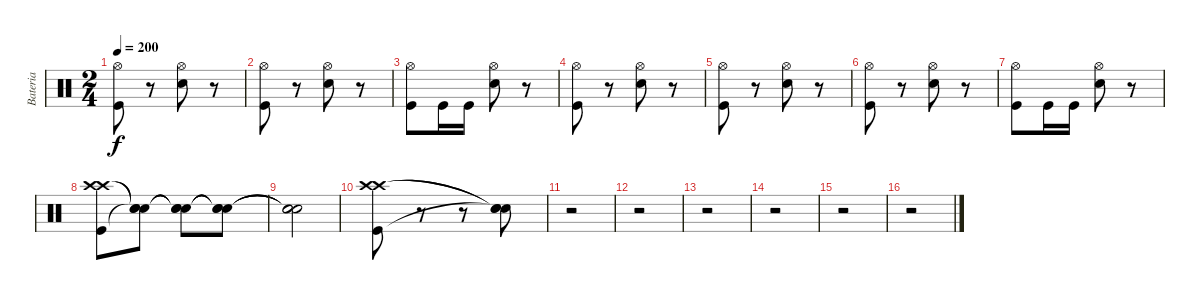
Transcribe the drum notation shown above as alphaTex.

\track ("Bateria" "Bateria") {instrument percussion}
\staff {score}
\articulation defaults
\ts (2 4)
\tempo 200
\clef neutral
\ks c
("Kick (hit)" "Hi-Hat (open)").8{dy f} r.8 ("Electric Snare (hit)" "Hi-Hat (open)").8 r.8 |
("Kick (hit)" "Hi-Hat (open)").8 r.8 ("Electric Snare (hit)" "Hi-Hat (open)").8 r.8 |
("Kick (hit)" "Hi-Hat (open)").8 "Kick (hit)".16 "Kick (hit)".16 ("Electric Snare (hit)" "Hi-Hat (open)").8 r.8 |
("Kick (hit)" "Hi-Hat (open)").8 r.8 ("Electric Snare (hit)" "Hi-Hat (open)").8 r.8 |
("Kick (hit)" "Hi-Hat (open)").8 r.8 ("Electric Snare (hit)" "Hi-Hat (open)").8 r.8 |
("Kick (hit)" "Hi-Hat (open)").8 r.8 ("Electric Snare (hit)" "Hi-Hat (open)").8 r.8 |
("Kick (hit)" "Hi-Hat (open)").8 "Kick (hit)".16 "Kick (hit)".16 ("Electric Snare (hit)" "Hi-Hat (open)").8 r.8 |
("Kick (hit)" "Crash high (hit)" "Crash high (hit)").8 ("Snare (hit)"{t} "Snare (hit)"{t} "Snare (hit)"{t}).8 ("Snare (hit)"{t} "Snare (hit)"{t} "Snare (hit)"{t}).8 ("Snare (hit)"{t} "Snare (hit)"{t} "Snare (hit)"{t}).8 |
("Snare (hit)"{t} "Snare (hit)"{t} "Snare (hit)"{t}).2 |
("Kick (hit)" "Crash high (hit)" "Crash high (hit)").8 r.8 r.8 ("Snare (hit)"{t} "Snare (hit)"{t} "Snare (hit)"{t}).8 |
r.2 |
r.2 |
r.2 |
r.2 |
r.2 |
r.2
